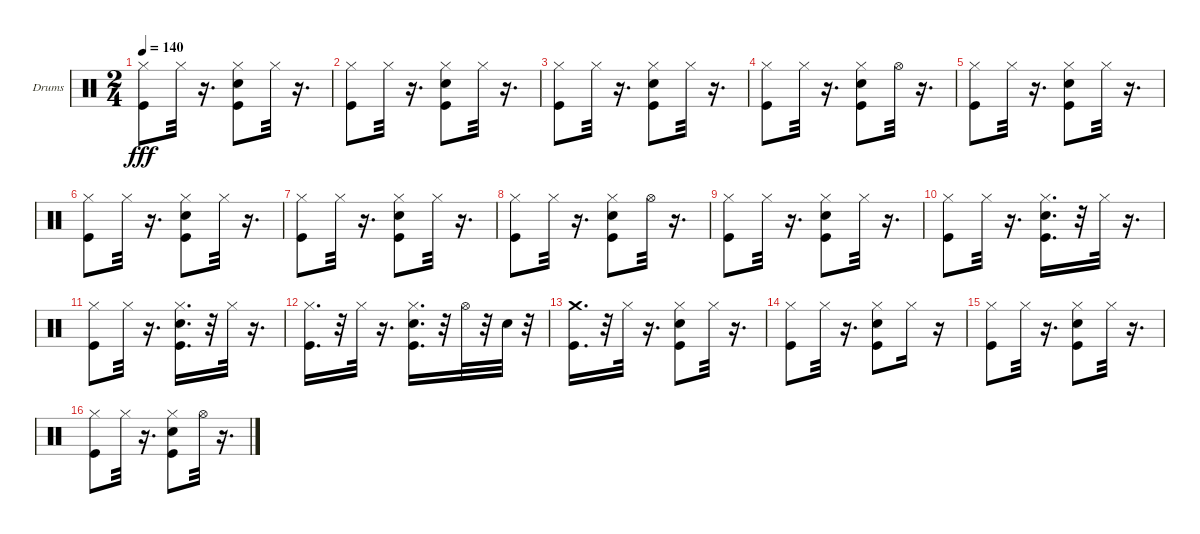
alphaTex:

\bracketExtendMode groupsimilarinstruments
\firstSystemTrackNameOrientation horizontal
\otherSystemsTrackNameOrientation horizontal
\track ("Ударные" "Drums") {instrument percussion}
\staff {score}
\articulation defaults
\ts (2 4)
\tempo 140
\clef neutral
\ks c
("Kick (hit)" "Hi-Hat (closed)").8{dy fff} "Hi-Hat (closed)".32 r.16{d} ("Snare (hit) 2" "Kick (hit)" "Hi-Hat (closed)").8 "Hi-Hat (closed)".32 r.16{d} |
("Kick (hit)" "Hi-Hat (closed)").8 "Hi-Hat (closed)".32 r.16{d} ("Snare (hit) 2" "Kick (hit)" "Hi-Hat (closed)").8 "Hi-Hat (closed)".32 r.16{d} |
("Kick (hit)" "Hi-Hat (closed)").8 "Hi-Hat (closed)".32 r.16{d} ("Kick (hit)" "Hi-Hat (closed)" "Snare (hit) 2").8 "Hi-Hat (closed)".32 r.16{d} |
("Kick (hit)" "Hi-Hat (closed)").8 "Hi-Hat (closed)".32 r.16{d} ("Kick (hit)" "Snare (hit) 2" "Hi-Hat (closed)").8 "Hi-Hat (open)".32 r.16{d} |
("Kick (hit)" "Hi-Hat (closed)").8 "Hi-Hat (closed)".32 r.16{d} ("Snare (hit) 2" "Kick (hit)" "Hi-Hat (closed)").8 "Hi-Hat (closed)".32 r.16{d} |
("Kick (hit)" "Hi-Hat (closed)").8 "Hi-Hat (closed)".32 r.16{d} ("Snare (hit) 2" "Kick (hit)" "Hi-Hat (closed)").8 "Hi-Hat (closed)".32 r.16{d} |
("Kick (hit)" "Hi-Hat (closed)").8 "Hi-Hat (closed)".32 r.16{d} ("Snare (hit) 2" "Kick (hit)" "Hi-Hat (closed)").8 "Hi-Hat (closed)".32 r.16{d} |
("Kick (hit)" "Hi-Hat (closed)").8 "Hi-Hat (closed)".32 r.16{d} ("Snare (hit) 2" "Kick (hit)" "Hi-Hat (closed)").8 "Hi-Hat (open)".32 r.16{d} |
("Kick (hit)" "Hi-Hat (closed)").8 "Hi-Hat (closed)".32 r.16{d} ("Snare (hit) 2" "Kick (hit)" "Hi-Hat (closed)").8 "Hi-Hat (closed)".32 r.16{d} |
("Kick (hit)" "Hi-Hat (closed)").8 "Hi-Hat (closed)".32 r.16{d} ("Snare (hit) 2" "Kick (hit)" "Hi-Hat (closed)").16{d} r.32 "Hi-Hat (closed)".32 r.16{d} |
("Kick (hit)" "Hi-Hat (closed)").8 "Hi-Hat (closed)".32 r.16{d} ("Snare (hit) 2" "Kick (hit)" "Hi-Hat (closed)").16{d} r.32 "Hi-Hat (closed)".32 r.16{d} |
("Hi-Hat (closed)" "Kick (hit)").16{d} r.32 "Hi-Hat (closed)".32 r.16{d} ("Snare (hit) 2" "Kick (hit)" "Hi-Hat (closed)").16{d} r.32 "Hi-Hat (open)".32 r.32 "Snare (hit) 2".32 r.32 |
("Kick (hit)" "Crash medium (hit)").16{d} r.32 "Hi-Hat (closed)".32 r.16{d} ("Snare (hit) 2" "Hi-Hat (closed)" "Kick (hit)").8 "Hi-Hat (closed)".32 r.16{d} |
("Kick (hit)" "Hi-Hat (closed)").8 "Hi-Hat (closed)".32 r.16{d} ("Snare (hit) 2" "Kick (hit)" "Hi-Hat (closed)").8 "Hi-Hat (closed)".16 r.16 |
("Kick (hit)" "Hi-Hat (closed)").8 "Hi-Hat (closed)".32 r.16{d} ("Snare (hit) 2" "Kick (hit)" "Hi-Hat (closed)").8 "Hi-Hat (closed)".32 r.16{d} |
("Kick (hit)" "Hi-Hat (closed)").8 "Hi-Hat (closed)".32 r.16{d} ("Kick (hit)" "Snare (hit) 2" "Hi-Hat (closed)").8 "Hi-Hat (open)".32 r.16{d}
